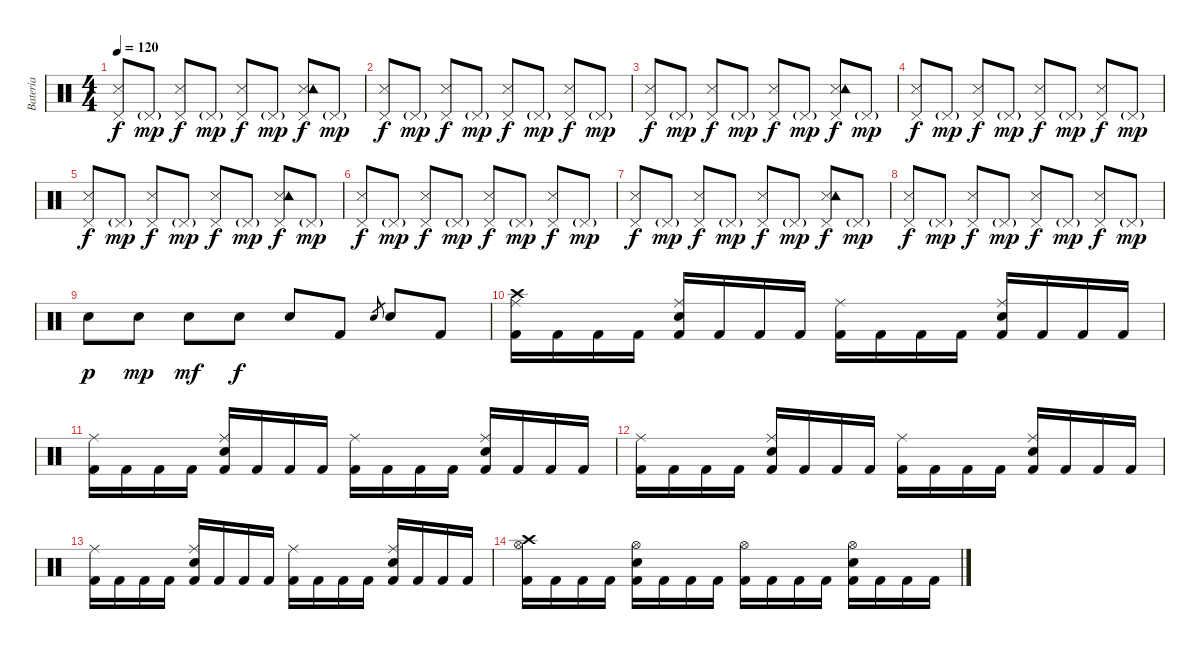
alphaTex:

\track ("Bateria" "Bateria") {instrument percussion}
\staff {score}
\articulation defaults
\ts (4 4)
\tempo 120
\clef neutral
\ks c
("Pedal Hi-Hat (hit)" "Snare (side stick) 3").8{dy f} "Pedal Hi-Hat (hit)"{g}.8{dy mp} ("Pedal Hi-Hat (hit)" "Snare (side stick) 3").8{dy f} "Pedal Hi-Hat (hit)"{g}.8{dy mp} ("Pedal Hi-Hat (hit)" "Snare (side stick) 3").8{dy f} "Pedal Hi-Hat (hit)"{g}.8{dy mp} ("Pedal Hi-Hat (hit)" "Snare (side stick) 3" "Tambourine (hit)").8{dy f} "Pedal Hi-Hat (hit)"{g}.8{dy mp} |
("Pedal Hi-Hat (hit)" "Snare (side stick) 3").8{dy f} "Pedal Hi-Hat (hit)"{g}.8{dy mp} ("Pedal Hi-Hat (hit)" "Snare (side stick) 3").8{dy f} "Pedal Hi-Hat (hit)"{g}.8{dy mp} ("Pedal Hi-Hat (hit)" "Snare (side stick) 3").8{dy f} "Pedal Hi-Hat (hit)"{g}.8{dy mp} ("Pedal Hi-Hat (hit)" "Snare (side stick) 3").8{dy f} "Pedal Hi-Hat (hit)"{g}.8{dy mp} |
("Pedal Hi-Hat (hit)" "Snare (side stick) 3").8{dy f} "Pedal Hi-Hat (hit)"{g}.8{dy mp} ("Pedal Hi-Hat (hit)" "Snare (side stick) 3").8{dy f} "Pedal Hi-Hat (hit)"{g}.8{dy mp} ("Pedal Hi-Hat (hit)" "Snare (side stick) 3").8{dy f} "Pedal Hi-Hat (hit)"{g}.8{dy mp} ("Pedal Hi-Hat (hit)" "Snare (side stick) 3" "Tambourine (hit)").8{dy f} "Pedal Hi-Hat (hit)"{g}.8{dy mp} |
("Pedal Hi-Hat (hit)" "Snare (side stick) 3").8{dy f} "Pedal Hi-Hat (hit)"{g}.8{dy mp} ("Pedal Hi-Hat (hit)" "Snare (side stick) 3").8{dy f} "Pedal Hi-Hat (hit)"{g}.8{dy mp} ("Pedal Hi-Hat (hit)" "Snare (side stick) 3").8{dy f} "Pedal Hi-Hat (hit)"{g}.8{dy mp} ("Pedal Hi-Hat (hit)" "Snare (side stick) 3").8{dy f} "Pedal Hi-Hat (hit)"{g}.8{dy mp} |
("Pedal Hi-Hat (hit)" "Snare (side stick) 3").8{dy f} "Pedal Hi-Hat (hit)"{g}.8{dy mp} ("Pedal Hi-Hat (hit)" "Snare (side stick) 3").8{dy f} "Pedal Hi-Hat (hit)"{g}.8{dy mp} ("Pedal Hi-Hat (hit)" "Snare (side stick) 3").8{dy f} "Pedal Hi-Hat (hit)"{g}.8{dy mp} ("Pedal Hi-Hat (hit)" "Snare (side stick) 3" "Tambourine (hit)").8{dy f} "Pedal Hi-Hat (hit)"{g}.8{dy mp} |
("Pedal Hi-Hat (hit)" "Snare (side stick) 3").8{dy f} "Pedal Hi-Hat (hit)"{g}.8{dy mp} ("Pedal Hi-Hat (hit)" "Snare (side stick) 3").8{dy f} "Pedal Hi-Hat (hit)"{g}.8{dy mp} ("Pedal Hi-Hat (hit)" "Snare (side stick) 3").8{dy f} "Pedal Hi-Hat (hit)"{g}.8{dy mp} ("Pedal Hi-Hat (hit)" "Snare (side stick) 3").8{dy f} "Pedal Hi-Hat (hit)"{g}.8{dy mp} |
("Pedal Hi-Hat (hit)" "Snare (side stick) 3").8{dy f} "Pedal Hi-Hat (hit)"{g}.8{dy mp} ("Pedal Hi-Hat (hit)" "Snare (side stick) 3").8{dy f} "Pedal Hi-Hat (hit)"{g}.8{dy mp} ("Pedal Hi-Hat (hit)" "Snare (side stick) 3").8{dy f} "Pedal Hi-Hat (hit)"{g}.8{dy mp} ("Pedal Hi-Hat (hit)" "Snare (side stick) 3" "Tambourine (hit)").8{dy f} "Pedal Hi-Hat (hit)"{g}.8{dy mp} |
("Pedal Hi-Hat (hit)" "Snare (side stick) 3").8{dy f} "Pedal Hi-Hat (hit)"{g}.8{dy mp} ("Pedal Hi-Hat (hit)" "Snare (side stick) 3").8{dy f} "Pedal Hi-Hat (hit)"{g}.8{dy mp} ("Pedal Hi-Hat (hit)" "Snare (side stick) 3").8{dy f} "Pedal Hi-Hat (hit)"{g}.8{dy mp} ("Pedal Hi-Hat (hit)" "Snare (side stick) 3").8{dy f} "Pedal Hi-Hat (hit)"{g}.8{dy mp} |
"Electric Snare (hit)".8{dy p} "Electric Snare (hit)".8{dy mp} "Electric Snare (hit)".8{dy mf} "Electric Snare (hit)".8{dy f} "Electric Snare (hit)".8 "Kick (hit) 2".8 "Electric Snare (hit)".8{gr} "Electric Snare (hit)".8 "Kick (hit) 2".8 |
("Ride (middle)" "Kick (hit) 2" "Crash high (hit)").16 "Kick (hit) 2".16 "Kick (hit) 2".16 "Kick (hit) 2".16 ("Ride (middle)" "Snare (hit) 2" "Kick (hit) 2").16 "Kick (hit) 2".16 "Kick (hit) 2".16 "Kick (hit) 2".16 ("Ride (middle)" "Kick (hit) 2").16 "Kick (hit) 2".16 "Kick (hit) 2".16 "Kick (hit) 2".16 ("Ride (middle)" "Snare (hit) 2" "Kick (hit) 2").16 "Kick (hit) 2".16 "Kick (hit) 2".16 "Kick (hit) 2".16 |
("Ride (middle)" "Kick (hit) 2").16 "Kick (hit) 2".16 "Kick (hit) 2".16 "Kick (hit) 2".16 ("Ride (middle)" "Snare (hit) 2" "Kick (hit) 2").16 "Kick (hit) 2".16 "Kick (hit) 2".16 "Kick (hit) 2".16 ("Ride (middle)" "Kick (hit) 2").16 "Kick (hit) 2".16 "Kick (hit) 2".16 "Kick (hit) 2".16 ("Ride (middle)" "Snare (hit) 2" "Kick (hit) 2").16 "Kick (hit) 2".16 "Kick (hit) 2".16 "Kick (hit) 2".16 |
("Ride (middle)" "Kick (hit) 2").16 "Kick (hit) 2".16 "Kick (hit) 2".16 "Kick (hit) 2".16 ("Ride (middle)" "Snare (hit) 2" "Kick (hit) 2").16 "Kick (hit) 2".16 "Kick (hit) 2".16 "Kick (hit) 2".16 ("Ride (middle)" "Kick (hit) 2").16 "Kick (hit) 2".16 "Kick (hit) 2".16 "Kick (hit) 2".16 ("Ride (middle)" "Snare (hit) 2" "Kick (hit) 2").16 "Kick (hit) 2".16 "Kick (hit) 2".16 "Kick (hit) 2".16 |
("Ride (middle)" "Kick (hit) 2").16 "Kick (hit) 2".16 "Kick (hit) 2".16 "Kick (hit) 2".16 ("Ride (middle)" "Snare (hit) 2" "Kick (hit) 2").16 "Kick (hit) 2".16 "Kick (hit) 2".16 "Kick (hit) 2".16 ("Ride (middle)" "Kick (hit) 2").16 "Kick (hit) 2".16 "Kick (hit) 2".16 "Kick (hit) 2".16 ("Ride (middle)" "Snare (hit) 2" "Kick (hit) 2").16 "Kick (hit) 2".16 "Kick (hit) 2".16 "Kick (hit) 2".16 |
("Hi-Hat (open)" "Kick (hit) 2" "Crash high (hit)").16 "Kick (hit) 2".16 "Kick (hit) 2".16 "Kick (hit) 2".16 ("Hi-Hat (open)" "Snare (hit) 2" "Kick (hit) 2").16 "Kick (hit) 2".16 "Kick (hit) 2".16 "Kick (hit) 2".16 ("Hi-Hat (open)" "Kick (hit) 2").16 "Kick (hit) 2".16 "Kick (hit) 2".16 "Kick (hit) 2".16 ("Hi-Hat (open)" "Snare (hit) 2" "Kick (hit) 2").16 "Kick (hit) 2".16 "Kick (hit) 2".16 "Kick (hit) 2".16
